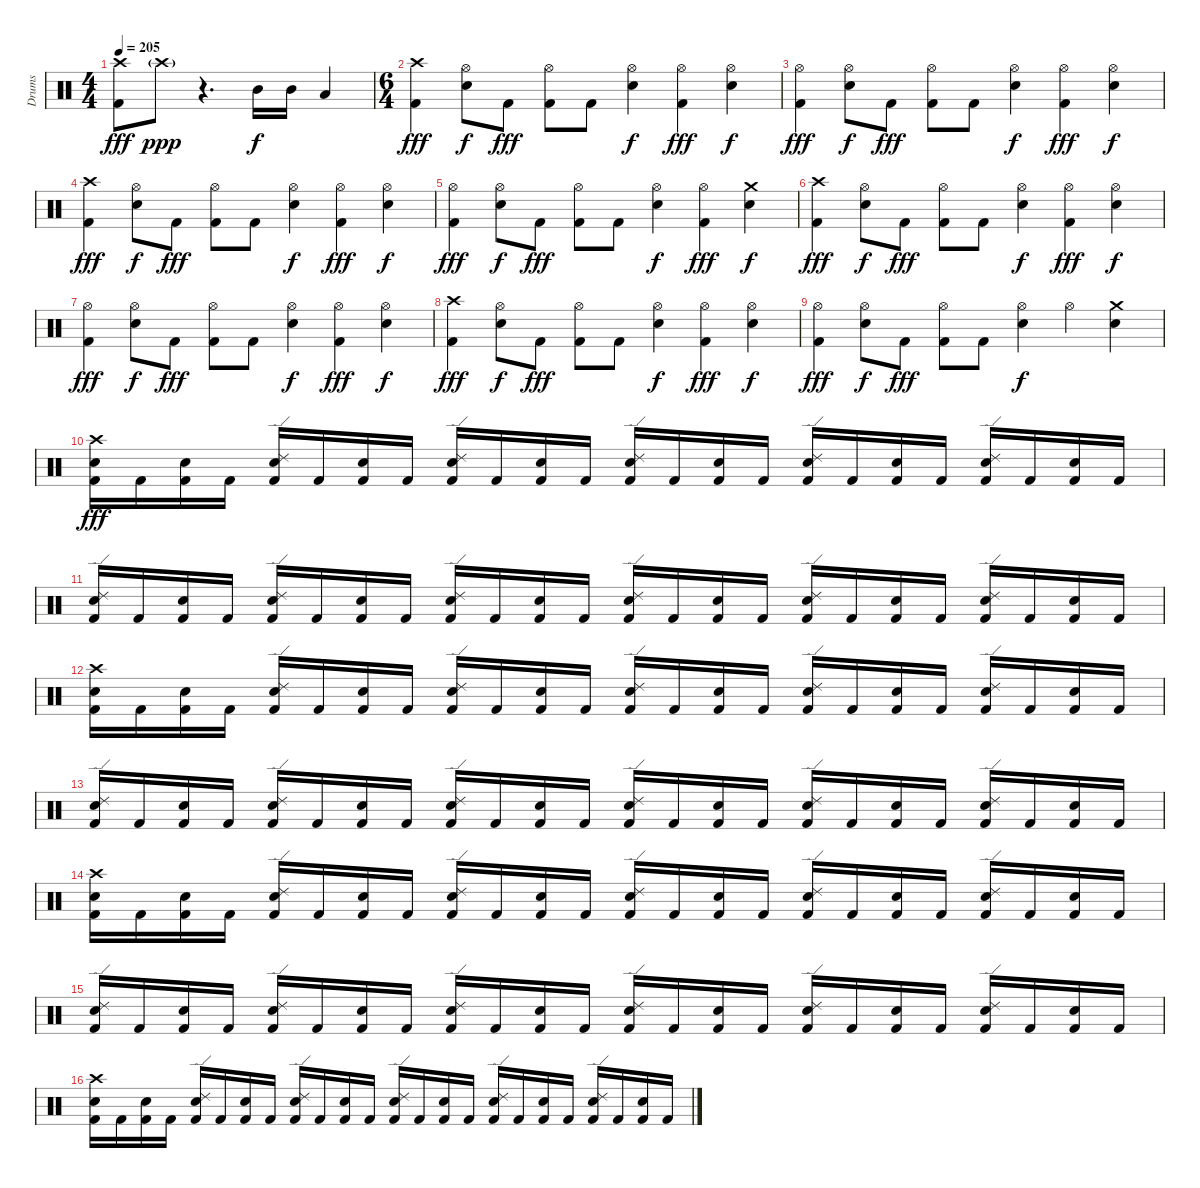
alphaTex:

\track ("Drums" "Drums") {instrument percussion}
\staff {score}
\articulation defaults
\ts (4 4)
\tempo 205
\clef neutral
\ks c
("Crash high (hit)" "Kick (hit) 2").8{dy fff} "Crash high (hit)"{g}.8{dy ppp} r.4{d} "Mid Tom (hit)".16{dy f} "Mid Tom (hit)".16 "Low Tom (hit)".4 |
\ts (6 4)
("Crash high (hit)" "Kick (hit) 2").4{dy fff} ("Hi-Hat (open)" "Snare (hit) 2").8{dy f} "Kick (hit) 2".8{dy fff} ("Hi-Hat (open)" "Kick (hit) 2").8 "Kick (hit) 2".8 ("Hi-Hat (open)" "Snare (hit) 2").4{dy f} ("Hi-Hat (open)" "Kick (hit) 2").4{dy fff} ("Hi-Hat (open)" "Snare (hit) 2").4{dy f} |
("Hi-Hat (open)" "Kick (hit) 2").4{dy fff} ("Hi-Hat (open)" "Snare (hit) 2").8{dy f} "Kick (hit) 2".8{dy fff} ("Hi-Hat (open)" "Kick (hit) 2").8 "Kick (hit) 2".8 ("Hi-Hat (open)" "Snare (hit) 2").4{dy f} ("Hi-Hat (open)" "Kick (hit) 2").4{dy fff} ("Hi-Hat (open)" "Snare (hit) 2").4{dy f} |
("Crash high (hit)" "Kick (hit) 2").4{dy fff} ("Hi-Hat (open)" "Snare (hit) 2").8{dy f} "Kick (hit) 2".8{dy fff} ("Hi-Hat (open)" "Kick (hit) 2").8 "Kick (hit) 2".8 ("Hi-Hat (open)" "Snare (hit) 2").4{dy f} ("Hi-Hat (open)" "Kick (hit) 2").4{dy fff} ("Hi-Hat (open)" "Snare (hit) 2").4{dy f} |
("Hi-Hat (open)" "Kick (hit) 2").4{dy fff} ("Hi-Hat (open)" "Snare (hit) 2").8{dy f} "Kick (hit) 2".8{dy fff} ("Hi-Hat (open)" "Kick (hit) 2").8 "Kick (hit) 2".8 ("Hi-Hat (open)" "Snare (hit) 2").4{dy f} ("Hi-Hat (open)" "Kick (hit) 2").4{dy fff} ("Crash medium (hit)" "Snare (hit) 2").4{dy f} |
("Crash high (hit)" "Kick (hit) 2").4{dy fff} ("Hi-Hat (open)" "Snare (hit) 2").8{dy f} "Kick (hit) 2".8{dy fff} ("Hi-Hat (open)" "Kick (hit) 2").8 "Kick (hit) 2".8 ("Hi-Hat (open)" "Snare (hit) 2").4{dy f} ("Hi-Hat (open)" "Kick (hit) 2").4{dy fff} ("Hi-Hat (open)" "Snare (hit) 2").4{dy f} |
("Hi-Hat (open)" "Kick (hit) 2").4{dy fff} ("Hi-Hat (open)" "Snare (hit) 2").8{dy f} "Kick (hit) 2".8{dy fff} ("Hi-Hat (open)" "Kick (hit) 2").8 "Kick (hit) 2".8 ("Hi-Hat (open)" "Snare (hit) 2").4{dy f} ("Hi-Hat (open)" "Kick (hit) 2").4{dy fff} ("Hi-Hat (open)" "Snare (hit) 2").4{dy f} |
("Crash high (hit)" "Kick (hit) 2").4{dy fff} ("Hi-Hat (open)" "Snare (hit) 2").8{dy f} "Kick (hit) 2".8{dy fff} ("Hi-Hat (open)" "Kick (hit) 2").8 "Kick (hit) 2".8 ("Hi-Hat (open)" "Snare (hit) 2").4{dy f} ("Hi-Hat (open)" "Kick (hit) 2").4{dy fff} ("Hi-Hat (open)" "Snare (hit) 2").4{dy f} |
("Hi-Hat (open)" "Kick (hit) 2").4{dy fff} ("Hi-Hat (open)" "Snare (hit) 2").8{dy f} "Kick (hit) 2".8{dy fff} ("Hi-Hat (open)" "Kick (hit) 2").8 "Kick (hit) 2".8 ("Hi-Hat (open)" "Snare (hit) 2").4{dy f} "Hi-Hat (open)".4 ("Crash medium (hit)" "Snare (hit) 2").4 |
("Crash high (hit)" "Snare (hit) 2" "Kick (hit) 2").16{dy fff} "Kick (hit) 2".16 ("Snare (hit) 2" "Kick (hit) 2").16 "Kick (hit) 2".16 ("Ride (edge) 2" "Snare (hit) 2" "Kick (hit) 2").16 "Kick (hit) 2".16 ("Snare (hit) 2" "Kick (hit) 2").16 "Kick (hit) 2".16 ("Ride (edge) 2" "Snare (hit) 2" "Kick (hit) 2").16 "Kick (hit) 2".16 ("Snare (hit) 2" "Kick (hit) 2").16 "Kick (hit) 2".16 ("Ride (edge) 2" "Snare (hit) 2" "Kick (hit) 2").16 "Kick (hit) 2".16 ("Snare (hit) 2" "Kick (hit) 2").16 "Kick (hit) 2".16 ("Ride (edge) 2" "Snare (hit) 2" "Kick (hit) 2").16 "Kick (hit) 2".16 ("Snare (hit) 2" "Kick (hit) 2").16 "Kick (hit) 2".16 ("Ride (edge) 2" "Snare (hit) 2" "Kick (hit) 2").16 "Kick (hit) 2".16 ("Snare (hit) 2" "Kick (hit) 2").16 "Kick (hit) 2".16 |
("Ride (edge) 2" "Snare (hit) 2" "Kick (hit) 2").16 "Kick (hit) 2".16 ("Snare (hit) 2" "Kick (hit) 2").16 "Kick (hit) 2".16 ("Ride (edge) 2" "Snare (hit) 2" "Kick (hit) 2").16 "Kick (hit) 2".16 ("Snare (hit) 2" "Kick (hit) 2").16 "Kick (hit) 2".16 ("Ride (edge) 2" "Snare (hit) 2" "Kick (hit) 2").16 "Kick (hit) 2".16 ("Snare (hit) 2" "Kick (hit) 2").16 "Kick (hit) 2".16 ("Ride (edge) 2" "Snare (hit) 2" "Kick (hit) 2").16 "Kick (hit) 2".16 ("Snare (hit) 2" "Kick (hit) 2").16 "Kick (hit) 2".16 ("Ride (edge) 2" "Snare (hit) 2" "Kick (hit) 2").16 "Kick (hit) 2".16 ("Snare (hit) 2" "Kick (hit) 2").16 "Kick (hit) 2".16 ("Ride (edge) 2" "Snare (hit) 2" "Kick (hit) 2").16 "Kick (hit) 2".16 ("Snare (hit) 2" "Kick (hit) 2").16 "Kick (hit) 2".16 |
("Crash high (hit)" "Snare (hit) 2" "Kick (hit) 2").16 "Kick (hit) 2".16 ("Snare (hit) 2" "Kick (hit) 2").16 "Kick (hit) 2".16 ("Ride (edge) 2" "Snare (hit) 2" "Kick (hit) 2").16 "Kick (hit) 2".16 ("Snare (hit) 2" "Kick (hit) 2").16 "Kick (hit) 2".16 ("Ride (edge) 2" "Snare (hit) 2" "Kick (hit) 2").16 "Kick (hit) 2".16 ("Snare (hit) 2" "Kick (hit) 2").16 "Kick (hit) 2".16 ("Ride (edge) 2" "Snare (hit) 2" "Kick (hit) 2").16 "Kick (hit) 2".16 ("Snare (hit) 2" "Kick (hit) 2").16 "Kick (hit) 2".16 ("Ride (edge) 2" "Snare (hit) 2" "Kick (hit) 2").16 "Kick (hit) 2".16 ("Snare (hit) 2" "Kick (hit) 2").16 "Kick (hit) 2".16 ("Ride (edge) 2" "Snare (hit) 2" "Kick (hit) 2").16 "Kick (hit) 2".16 ("Snare (hit) 2" "Kick (hit) 2").16 "Kick (hit) 2".16 |
("Ride (edge) 2" "Snare (hit) 2" "Kick (hit) 2").16 "Kick (hit) 2".16 ("Snare (hit) 2" "Kick (hit) 2").16 "Kick (hit) 2".16 ("Ride (edge) 2" "Snare (hit) 2" "Kick (hit) 2").16 "Kick (hit) 2".16 ("Snare (hit) 2" "Kick (hit) 2").16 "Kick (hit) 2".16 ("Ride (edge) 2" "Snare (hit) 2" "Kick (hit) 2").16 "Kick (hit) 2".16 ("Snare (hit) 2" "Kick (hit) 2").16 "Kick (hit) 2".16 ("Ride (edge) 2" "Snare (hit) 2" "Kick (hit) 2").16 "Kick (hit) 2".16 ("Snare (hit) 2" "Kick (hit) 2").16 "Kick (hit) 2".16 ("Ride (edge) 2" "Snare (hit) 2" "Kick (hit) 2").16 "Kick (hit) 2".16 ("Snare (hit) 2" "Kick (hit) 2").16 "Kick (hit) 2".16 ("Ride (edge) 2" "Snare (hit) 2" "Kick (hit) 2").16 "Kick (hit) 2".16 ("Snare (hit) 2" "Kick (hit) 2").16 "Kick (hit) 2".16 |
("Crash high (hit)" "Snare (hit) 2" "Kick (hit) 2").16 "Kick (hit) 2".16 ("Snare (hit) 2" "Kick (hit) 2").16 "Kick (hit) 2".16 ("Ride (edge) 2" "Snare (hit) 2" "Kick (hit) 2").16 "Kick (hit) 2".16 ("Snare (hit) 2" "Kick (hit) 2").16 "Kick (hit) 2".16 ("Ride (edge) 2" "Snare (hit) 2" "Kick (hit) 2").16 "Kick (hit) 2".16 ("Snare (hit) 2" "Kick (hit) 2").16 "Kick (hit) 2".16 ("Ride (edge) 2" "Snare (hit) 2" "Kick (hit) 2").16 "Kick (hit) 2".16 ("Snare (hit) 2" "Kick (hit) 2").16 "Kick (hit) 2".16 ("Ride (edge) 2" "Snare (hit) 2" "Kick (hit) 2").16 "Kick (hit) 2".16 ("Snare (hit) 2" "Kick (hit) 2").16 "Kick (hit) 2".16 ("Ride (edge) 2" "Snare (hit) 2" "Kick (hit) 2").16 "Kick (hit) 2".16 ("Snare (hit) 2" "Kick (hit) 2").16 "Kick (hit) 2".16 |
("Ride (edge) 2" "Snare (hit) 2" "Kick (hit) 2").16 "Kick (hit) 2".16 ("Snare (hit) 2" "Kick (hit) 2").16 "Kick (hit) 2".16 ("Ride (edge) 2" "Snare (hit) 2" "Kick (hit) 2").16 "Kick (hit) 2".16 ("Snare (hit) 2" "Kick (hit) 2").16 "Kick (hit) 2".16 ("Ride (edge) 2" "Snare (hit) 2" "Kick (hit) 2").16 "Kick (hit) 2".16 ("Snare (hit) 2" "Kick (hit) 2").16 "Kick (hit) 2".16 ("Ride (edge) 2" "Snare (hit) 2" "Kick (hit) 2").16 "Kick (hit) 2".16 ("Snare (hit) 2" "Kick (hit) 2").16 "Kick (hit) 2".16 ("Ride (edge) 2" "Snare (hit) 2" "Kick (hit) 2").16 "Kick (hit) 2".16 ("Snare (hit) 2" "Kick (hit) 2").16 "Kick (hit) 2".16 ("Ride (edge) 2" "Snare (hit) 2" "Kick (hit) 2").16 "Kick (hit) 2".16 ("Snare (hit) 2" "Kick (hit) 2").16 "Kick (hit) 2".16 |
("Crash high (hit)" "Snare (hit) 2" "Kick (hit) 2").16 "Kick (hit) 2".16 ("Snare (hit) 2" "Kick (hit) 2").16 "Kick (hit) 2".16 ("Ride (edge) 2" "Snare (hit) 2" "Kick (hit) 2").16 "Kick (hit) 2".16 ("Snare (hit) 2" "Kick (hit) 2").16 "Kick (hit) 2".16 ("Ride (edge) 2" "Snare (hit) 2" "Kick (hit) 2").16 "Kick (hit) 2".16 ("Snare (hit) 2" "Kick (hit) 2").16 "Kick (hit) 2".16 ("Ride (edge) 2" "Snare (hit) 2" "Kick (hit) 2").16 "Kick (hit) 2".16 ("Snare (hit) 2" "Kick (hit) 2").16 "Kick (hit) 2".16 ("Ride (edge) 2" "Snare (hit) 2" "Kick (hit) 2").16 "Kick (hit) 2".16 ("Snare (hit) 2" "Kick (hit) 2").16 "Kick (hit) 2".16 ("Ride (edge) 2" "Snare (hit) 2" "Kick (hit) 2").16 "Kick (hit) 2".16 ("Snare (hit) 2" "Kick (hit) 2").16 "Kick (hit) 2".16
